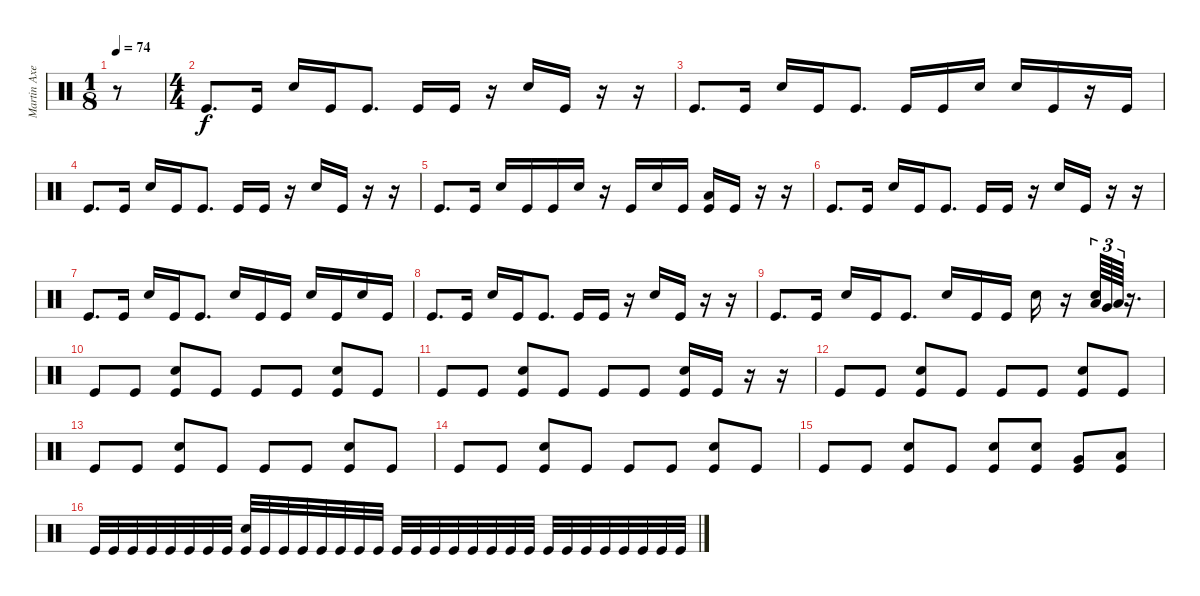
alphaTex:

\track ("Martin Axenrot - Drums" "Martin Axe") {instrument percussion}
\staff {score}
\articulation defaults
\ts (1 8)
\tempo 74
\clef neutral
\ks c
r.8{dy f} |
\ts (4 4)
"Kick (hit)".8{d} "Kick (hit)".16 "Snare (hit) 2".16 "Kick (hit)".16 "Kick (hit)".8{d} "Kick (hit)".16 "Kick (hit)".16 r.16 "Snare (hit) 2".16 "Kick (hit)".16 r.16 r.16 |
"Kick (hit)".8{d} "Kick (hit)".16 "Snare (hit) 2".16 "Kick (hit)".16 "Kick (hit)".8{d} "Kick (hit)".16 "Kick (hit)".16 "Snare (hit) 2".16 "Snare (hit) 2".16 "Kick (hit)".16 r.16 "Kick (hit)".16 |
"Kick (hit)".8{d} "Kick (hit)".16 "Snare (hit) 2".16 "Kick (hit)".16 "Kick (hit)".8{d} "Kick (hit)".16 "Kick (hit)".16 r.16 "Snare (hit) 2".16 "Kick (hit)".16 r.16 r.16 |
"Kick (hit)".8{d} "Kick (hit)".16 "Snare (hit) 2".16 "Kick (hit)".16 "Kick (hit)".16 "Snare (hit) 2".16 r.16 "Kick (hit)".16 "Snare (hit) 2".16 "Kick (hit)".16 ("Low Floor Tom (hit)" "Kick (hit)").16 "Kick (hit)".16 r.16 r.16 |
"Kick (hit)".8{d} "Kick (hit)".16 "Snare (hit) 2".16 "Kick (hit)".16 "Kick (hit)".8{d} "Kick (hit)".16 "Kick (hit)".16 r.16 "Snare (hit) 2".16 "Kick (hit)".16 r.16 r.16 |
"Kick (hit)".8{d} "Kick (hit)".16 "Snare (hit) 2".16 "Kick (hit)".16 "Kick (hit)".8{d} "Snare (hit) 2".16 "Kick (hit)".16 "Kick (hit)".16 "Snare (hit) 2".16 "Kick (hit)".16 "Snare (hit) 2".16 "Kick (hit)".16 |
"Kick (hit)".8{d} "Kick (hit)".16 "Snare (hit) 2".16 "Kick (hit)".16 "Kick (hit)".8{d} "Kick (hit)".16 "Kick (hit)".16 r.16 "Snare (hit) 2".16 "Kick (hit)".16 r.16 r.16 |
"Kick (hit)".8{d} "Kick (hit)".16 "Snare (hit) 2".16 "Kick (hit)".16 "Kick (hit)".8{d} "Snare (hit) 2".16 "Kick (hit)".16 "Kick (hit)".16 "Snare (hit) 2".16 r.16 ("Low Tom (hit)" "Snare (hit) 2").64{tu (3 2)} "Very Low Tom (hit)".64{tu (3 2)} "Low Floor Tom (hit)".64{tu (3 2)} r.16{d} |
"Kick (hit)".8 "Kick (hit)".8 ("Snare (hit) 2" "Kick (hit)").8 "Kick (hit)".8 "Kick (hit)".8 "Kick (hit)".8 ("Snare (hit) 2" "Kick (hit)").8 "Kick (hit)".8 |
"Kick (hit)".8 "Kick (hit)".8 ("Snare (hit) 2" "Kick (hit)").8 "Kick (hit)".8 "Kick (hit)".8 "Kick (hit)".8 ("Snare (hit) 2" "Kick (hit)").16 "Kick (hit)".16 r.16 r.16 |
"Kick (hit)".8 "Kick (hit)".8 ("Snare (hit) 2" "Kick (hit)").8 "Kick (hit)".8 "Kick (hit)".8 "Kick (hit)".8 ("Snare (hit) 2" "Kick (hit)").8 "Kick (hit)".8 |
"Kick (hit)".8 "Kick (hit)".8 ("Snare (hit) 2" "Kick (hit)").8 "Kick (hit)".8 "Kick (hit)".8 "Kick (hit)".8 ("Snare (hit) 2" "Kick (hit)").8 "Kick (hit)".8 |
"Kick (hit)".8 "Kick (hit)".8 ("Snare (hit) 2" "Kick (hit)").8 "Kick (hit)".8 "Kick (hit)".8 "Kick (hit)".8 ("Snare (hit) 2" "Kick (hit)").8 "Kick (hit)".8 |
"Kick (hit)".8 "Kick (hit)".8 ("Snare (hit) 2" "Kick (hit)").8 "Kick (hit)".8 ("Snare (hit) 2" "Kick (hit)").8 ("Snare (hit) 2" "Kick (hit)").8 ("Very Low Tom (hit)" "Kick (hit)").8 ("Low Floor Tom (hit)" "Kick (hit)").8 |
"Kick (hit)".32 "Kick (hit)".32 "Kick (hit)".32 "Kick (hit)".32 "Kick (hit)".32 "Kick (hit)".32 "Kick (hit)".32 "Kick (hit)".32 ("Snare (hit) 2" "Kick (hit)").32 "Kick (hit)".32 "Kick (hit)".32 "Kick (hit)".32 "Kick (hit)".32 "Kick (hit)".32 "Kick (hit)".32 "Kick (hit)".32 "Kick (hit)".32 "Kick (hit)".32 "Kick (hit)".32 "Kick (hit)".32 "Kick (hit)".32 "Kick (hit)".32 "Kick (hit)".32 "Kick (hit)".32 "Kick (hit)".32 "Kick (hit)".32 "Kick (hit)".32 "Kick (hit)".32 "Kick (hit)".32 "Kick (hit)".32 "Kick (hit)".32 "Kick (hit)".32
